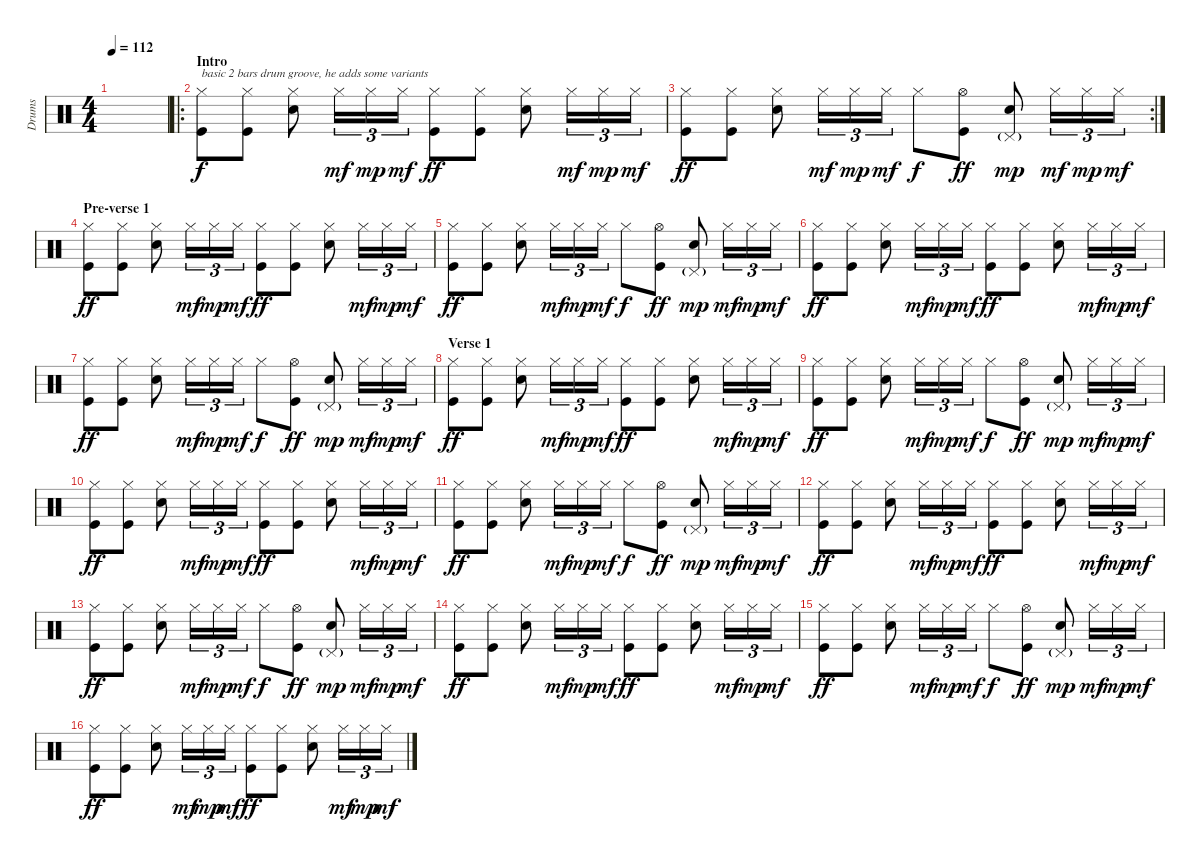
\track ("Drums" "Drums") {instrument percussion}
\staff {score}
\articulation defaults
\ts (4 4)
\tempo 112
\clef neutral
\ks c
|
\ro
\section ("" "Intro")
("Hi-Hat (closed)" "Kick (hit)").8{txt "basic 2 bars drum groove, he adds some variants"} ("Hi-Hat (closed)" "Kick (hit)").8 ("Hi-Hat (closed)" "Electric Snare (hit)").8 "Hi-Hat (closed)".16{tu (3 2) dy mf} "Hi-Hat (closed)".16{tu (3 2) dy mp} "Hi-Hat (closed)".16{tu (3 2) dy mf} ("Hi-Hat (closed)" "Kick (hit)").8{dy ff} ("Hi-Hat (closed)" "Kick (hit)").8 ("Hi-Hat (closed)" "Electric Snare (hit)").8 "Hi-Hat (closed)".16{tu (3 2) dy mf} "Hi-Hat (closed)".16{tu (3 2) dy mp} "Hi-Hat (closed)".16{tu (3 2) dy mf} |
\rc 2
("Hi-Hat (closed)" "Kick (hit)").8{dy ff} ("Hi-Hat (closed)" "Kick (hit)").8 ("Hi-Hat (closed)" "Electric Snare (hit)").8 "Hi-Hat (closed)".16{tu (3 2) dy mf} "Hi-Hat (closed)".16{tu (3 2) dy mp} "Hi-Hat (closed)".16{tu (3 2) dy mf} "Hi-Hat (closed)".8{dy f} ("Hi-Hat (open)" "Kick (hit)").8{dy ff} ("Pedal Hi-Hat (hit)"{g} "Electric Snare (hit)").8{dy mp} "Hi-Hat (closed)".16{tu (3 2) dy mf} "Hi-Hat (closed)".16{tu (3 2) dy mp} "Hi-Hat (closed)".16{tu (3 2) dy mf} |
\section ("" "Pre-verse 1")
("Hi-Hat (closed)" "Kick (hit)").8{dy ff} ("Hi-Hat (closed)" "Kick (hit)").8 ("Hi-Hat (closed)" "Electric Snare (hit)").8 "Hi-Hat (closed)".16{tu (3 2) dy mf} "Hi-Hat (closed)".16{tu (3 2) dy mp} "Hi-Hat (closed)".16{tu (3 2) dy mf} ("Hi-Hat (closed)" "Kick (hit)").8{dy ff} ("Hi-Hat (closed)" "Kick (hit)").8 ("Hi-Hat (closed)" "Electric Snare (hit)").8 "Hi-Hat (closed)".16{tu (3 2) dy mf} "Hi-Hat (closed)".16{tu (3 2) dy mp} "Hi-Hat (closed)".16{tu (3 2) dy mf} |
("Hi-Hat (closed)" "Kick (hit)").8{dy ff} ("Hi-Hat (closed)" "Kick (hit)").8 ("Hi-Hat (closed)" "Electric Snare (hit)").8 "Hi-Hat (closed)".16{tu (3 2) dy mf} "Hi-Hat (closed)".16{tu (3 2) dy mp} "Hi-Hat (closed)".16{tu (3 2) dy mf} "Hi-Hat (closed)".8{dy f} ("Hi-Hat (open)" "Kick (hit)").8{dy ff} ("Pedal Hi-Hat (hit)"{g} "Electric Snare (hit)").8{dy mp} "Hi-Hat (closed)".16{tu (3 2) dy mf} "Hi-Hat (closed)".16{tu (3 2) dy mp} "Hi-Hat (closed)".16{tu (3 2) dy mf} |
("Hi-Hat (closed)" "Kick (hit)").8{dy ff} ("Hi-Hat (closed)" "Kick (hit)").8 ("Hi-Hat (closed)" "Electric Snare (hit)").8 "Hi-Hat (closed)".16{tu (3 2) dy mf} "Hi-Hat (closed)".16{tu (3 2) dy mp} "Hi-Hat (closed)".16{tu (3 2) dy mf} ("Hi-Hat (closed)" "Kick (hit)").8{dy ff} ("Hi-Hat (closed)" "Kick (hit)").8 ("Hi-Hat (closed)" "Electric Snare (hit)").8 "Hi-Hat (closed)".16{tu (3 2) dy mf} "Hi-Hat (closed)".16{tu (3 2) dy mp} "Hi-Hat (closed)".16{tu (3 2) dy mf} |
("Hi-Hat (closed)" "Kick (hit)").8{dy ff} ("Hi-Hat (closed)" "Kick (hit)").8 ("Hi-Hat (closed)" "Electric Snare (hit)").8 "Hi-Hat (closed)".16{tu (3 2) dy mf} "Hi-Hat (closed)".16{tu (3 2) dy mp} "Hi-Hat (closed)".16{tu (3 2) dy mf} "Hi-Hat (closed)".8{dy f} ("Hi-Hat (open)" "Kick (hit)").8{dy ff} ("Pedal Hi-Hat (hit)"{g} "Electric Snare (hit)").8{dy mp} "Hi-Hat (closed)".16{tu (3 2) dy mf} "Hi-Hat (closed)".16{tu (3 2) dy mp} "Hi-Hat (closed)".16{tu (3 2) dy mf} |
\section ("" "Verse 1")
("Hi-Hat (closed)" "Kick (hit)").8{dy ff} ("Hi-Hat (closed)" "Kick (hit)").8 ("Hi-Hat (closed)" "Electric Snare (hit)").8 "Hi-Hat (closed)".16{tu (3 2) dy mf} "Hi-Hat (closed)".16{tu (3 2) dy mp} "Hi-Hat (closed)".16{tu (3 2) dy mf} ("Hi-Hat (closed)" "Kick (hit)").8{dy ff} ("Hi-Hat (closed)" "Kick (hit)").8 ("Hi-Hat (closed)" "Electric Snare (hit)").8 "Hi-Hat (closed)".16{tu (3 2) dy mf} "Hi-Hat (closed)".16{tu (3 2) dy mp} "Hi-Hat (closed)".16{tu (3 2) dy mf} |
("Hi-Hat (closed)" "Kick (hit)").8{dy ff} ("Hi-Hat (closed)" "Kick (hit)").8 ("Hi-Hat (closed)" "Electric Snare (hit)").8 "Hi-Hat (closed)".16{tu (3 2) dy mf} "Hi-Hat (closed)".16{tu (3 2) dy mp} "Hi-Hat (closed)".16{tu (3 2) dy mf} "Hi-Hat (closed)".8{dy f} ("Hi-Hat (open)" "Kick (hit)").8{dy ff} ("Pedal Hi-Hat (hit)"{g} "Electric Snare (hit)").8{dy mp} "Hi-Hat (closed)".16{tu (3 2) dy mf} "Hi-Hat (closed)".16{tu (3 2) dy mp} "Hi-Hat (closed)".16{tu (3 2) dy mf} |
("Hi-Hat (closed)" "Kick (hit)").8{dy ff} ("Hi-Hat (closed)" "Kick (hit)").8 ("Hi-Hat (closed)" "Electric Snare (hit)").8 "Hi-Hat (closed)".16{tu (3 2) dy mf} "Hi-Hat (closed)".16{tu (3 2) dy mp} "Hi-Hat (closed)".16{tu (3 2) dy mf} ("Hi-Hat (closed)" "Kick (hit)").8{dy ff} ("Hi-Hat (closed)" "Kick (hit)").8 ("Hi-Hat (closed)" "Electric Snare (hit)").8 "Hi-Hat (closed)".16{tu (3 2) dy mf} "Hi-Hat (closed)".16{tu (3 2) dy mp} "Hi-Hat (closed)".16{tu (3 2) dy mf} |
("Hi-Hat (closed)" "Kick (hit)").8{dy ff} ("Hi-Hat (closed)" "Kick (hit)").8 ("Hi-Hat (closed)" "Electric Snare (hit)").8 "Hi-Hat (closed)".16{tu (3 2) dy mf} "Hi-Hat (closed)".16{tu (3 2) dy mp} "Hi-Hat (closed)".16{tu (3 2) dy mf} "Hi-Hat (closed)".8{dy f} ("Hi-Hat (open)" "Kick (hit)").8{dy ff} ("Pedal Hi-Hat (hit)"{g} "Electric Snare (hit)").8{dy mp} "Hi-Hat (closed)".16{tu (3 2) dy mf} "Hi-Hat (closed)".16{tu (3 2) dy mp} "Hi-Hat (closed)".16{tu (3 2) dy mf} |
("Hi-Hat (closed)" "Kick (hit)").8{dy ff} ("Hi-Hat (closed)" "Kick (hit)").8 ("Hi-Hat (closed)" "Electric Snare (hit)").8 "Hi-Hat (closed)".16{tu (3 2) dy mf} "Hi-Hat (closed)".16{tu (3 2) dy mp} "Hi-Hat (closed)".16{tu (3 2) dy mf} ("Hi-Hat (closed)" "Kick (hit)").8{dy ff} ("Hi-Hat (closed)" "Kick (hit)").8 ("Hi-Hat (closed)" "Electric Snare (hit)").8 "Hi-Hat (closed)".16{tu (3 2) dy mf} "Hi-Hat (closed)".16{tu (3 2) dy mp} "Hi-Hat (closed)".16{tu (3 2) dy mf} |
("Hi-Hat (closed)" "Kick (hit)").8{dy ff} ("Hi-Hat (closed)" "Kick (hit)").8 ("Hi-Hat (closed)" "Electric Snare (hit)").8 "Hi-Hat (closed)".16{tu (3 2) dy mf} "Hi-Hat (closed)".16{tu (3 2) dy mp} "Hi-Hat (closed)".16{tu (3 2) dy mf} "Hi-Hat (closed)".8{dy f} ("Hi-Hat (open)" "Kick (hit)").8{dy ff} ("Pedal Hi-Hat (hit)"{g} "Electric Snare (hit)").8{dy mp} "Hi-Hat (closed)".16{tu (3 2) dy mf} "Hi-Hat (closed)".16{tu (3 2) dy mp} "Hi-Hat (closed)".16{tu (3 2) dy mf} |
("Hi-Hat (closed)" "Kick (hit)").8{dy ff} ("Hi-Hat (closed)" "Kick (hit)").8 ("Hi-Hat (closed)" "Electric Snare (hit)").8 "Hi-Hat (closed)".16{tu (3 2) dy mf} "Hi-Hat (closed)".16{tu (3 2) dy mp} "Hi-Hat (closed)".16{tu (3 2) dy mf} ("Hi-Hat (closed)" "Kick (hit)").8{dy ff} ("Hi-Hat (closed)" "Kick (hit)").8 ("Hi-Hat (closed)" "Electric Snare (hit)").8 "Hi-Hat (closed)".16{tu (3 2) dy mf} "Hi-Hat (closed)".16{tu (3 2) dy mp} "Hi-Hat (closed)".16{tu (3 2) dy mf} |
("Hi-Hat (closed)" "Kick (hit)").8{dy ff} ("Hi-Hat (closed)" "Kick (hit)").8 ("Hi-Hat (closed)" "Electric Snare (hit)").8 "Hi-Hat (closed)".16{tu (3 2) dy mf} "Hi-Hat (closed)".16{tu (3 2) dy mp} "Hi-Hat (closed)".16{tu (3 2) dy mf} "Hi-Hat (closed)".8{dy f} ("Hi-Hat (open)" "Kick (hit)").8{dy ff} ("Pedal Hi-Hat (hit)"{g} "Electric Snare (hit)").8{dy mp} "Hi-Hat (closed)".16{tu (3 2) dy mf} "Hi-Hat (closed)".16{tu (3 2) dy mp} "Hi-Hat (closed)".16{tu (3 2) dy mf} |
("Hi-Hat (closed)" "Kick (hit)").8{dy ff} ("Hi-Hat (closed)" "Kick (hit)").8 ("Hi-Hat (closed)" "Electric Snare (hit)").8 "Hi-Hat (closed)".16{tu (3 2) dy mf} "Hi-Hat (closed)".16{tu (3 2) dy mp} "Hi-Hat (closed)".16{tu (3 2) dy mf} ("Hi-Hat (closed)" "Kick (hit)").8{dy ff} ("Hi-Hat (closed)" "Kick (hit)").8 ("Hi-Hat (closed)" "Electric Snare (hit)").8 "Hi-Hat (closed)".16{tu (3 2) dy mf} "Hi-Hat (closed)".16{tu (3 2) dy mp} "Hi-Hat (closed)".16{tu (3 2) dy mf}
